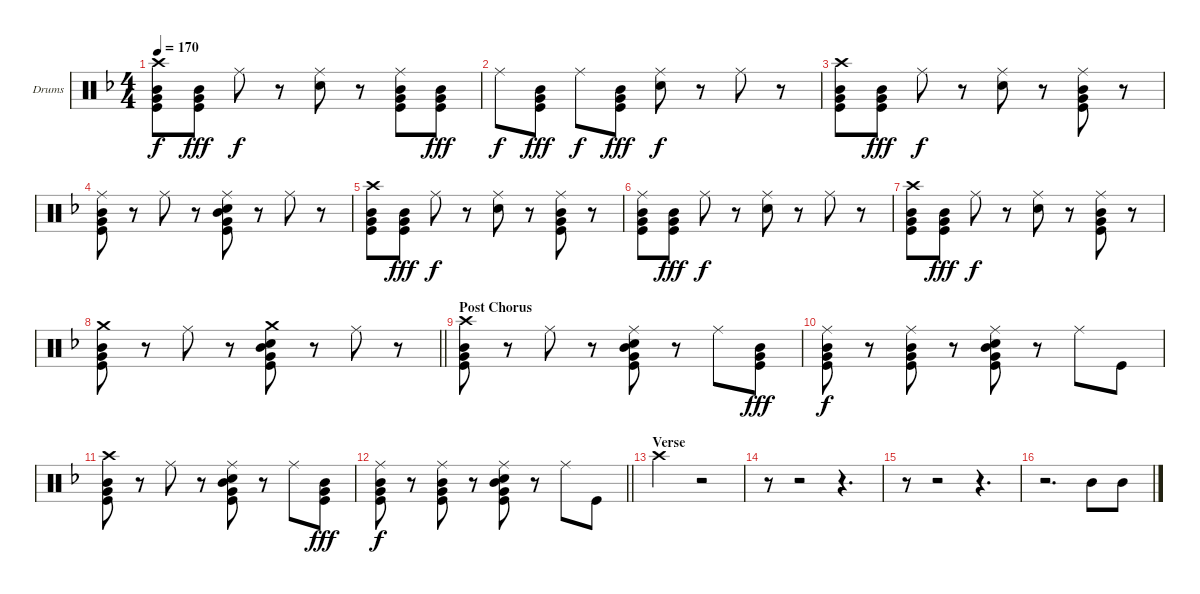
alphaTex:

\bracketExtendMode groupsimilarinstruments
\firstSystemTrackNameOrientation horizontal
\otherSystemsTrackNameOrientation horizontal
\track ("Drumkit" "Drums") {instrument percussion}
\staff {score}
\articulation defaults
\ts (4 4)
\tempo 170
\clef neutral
\scale
0.333333
\ks dminor
("Crash high (hit)" "Mid Tom (hit)" "Very Low Tom (hit)" "Kick (hit)").8{dy f} ("Mid Tom (hit)" "Very Low Tom (hit)" "Kick (hit)").8{dy fff} "Ride (middle)".8{dy f} r.8 ("Ride (middle)" "Snare (hit) 2").8 r.8 ("Ride (middle)" "Mid Tom (hit)" "Very Low Tom (hit)" "Kick (hit)").8 ("Mid Tom (hit)" "Very Low Tom (hit)" "Kick (hit)").8{dy fff} |
\scale
0.333333 "Ride (middle)".8{dy f} ("Mid Tom (hit)" "Very Low Tom (hit)" "Kick (hit)").8{dy fff} "Ride (middle)".8{dy f} ("Mid Tom (hit)" "Kick (hit)" "Very Low Tom (hit)").8{dy fff} ("Ride (middle)" "Snare (hit) 2").8{dy f} r.8 "Ride (middle)".8 r.8 |
\scale
0.333333 ("Crash high (hit)" "Mid Tom (hit)" "Very Low Tom (hit)" "Kick (hit)").8 ("Mid Tom (hit)" "Very Low Tom (hit)" "Kick (hit)").8{dy fff} "Ride (middle)".8{dy f} r.8 ("Ride (middle)" "Snare (hit) 2").8 r.8 ("Ride (middle)" "Mid Tom (hit)" "Very Low Tom (hit)" "Kick (hit)").8 r.8 |
\scale
0.351852 ("Ride (middle)" "Mid Tom (hit)" "Very Low Tom (hit)" "Kick (hit)").8 r.8 "Ride (middle)".8 r.8 ("Ride (middle)" "Snare (hit) 2" "Mid Tom (hit)" "Very Low Tom (hit)" "Kick (hit)").8 r.8 "Ride (middle)".8 r.8 |
\scale
0.324074 ("Crash high (hit)" "Mid Tom (hit)" "Very Low Tom (hit)" "Kick (hit)").8 ("Mid Tom (hit)" "Very Low Tom (hit)" "Kick (hit)").8{dy fff} "Ride (middle)".8{dy f} r.8 ("Ride (middle)" "Snare (hit) 2").8 r.8 ("Ride (middle)" "Mid Tom (hit)" "Very Low Tom (hit)" "Kick (hit)").8 r.8 |
\scale
0.324074 ("Ride (middle)" "Mid Tom (hit)" "Very Low Tom (hit)" "Kick (hit)").8 ("Mid Tom (hit)" "Very Low Tom (hit)" "Kick (hit)").8{dy fff} "Ride (middle)".8{dy f} r.8 ("Ride (middle)" "Snare (hit) 2").8 r.8 "Ride (middle)".8 r.8 |
\scale
0.315315 ("Crash high (hit)" "Mid Tom (hit)" "Very Low Tom (hit)" "Kick (hit)").8 ("Mid Tom (hit)" "Very Low Tom (hit)" "Kick (hit)").8{dy fff} "Ride (middle)".8{dy f} r.8 ("Ride (middle)" "Snare (hit) 2").8 r.8 ("Ride (middle)" "Mid Tom (hit)" "Very Low Tom (hit)" "Kick (hit)").8 r.8 |
\scale
0.342342
\barLineRight lightlight
("Crash medium (hit)" "Mid Tom (hit)" "Very Low Tom (hit)" "Kick (hit)").8 r.8 "Ride (middle)".8 r.8 ("Crash medium (hit)" "Snare (hit) 2" "Mid Tom (hit)" "Very Low Tom (hit)" "Kick (hit)").8 r.8 "Ride (middle)".8 r.8 |
\section ("" "Post Chorus")
\scale
0.342342 ("Crash high (hit)" "Mid Tom (hit)" "Very Low Tom (hit)" "Kick (hit)").8 r.8 "Ride (middle)".8 r.8 ("Ride (middle)" "Snare (hit) 2" "Mid Tom (hit)" "Very Low Tom (hit)" "Kick (hit)").8 r.8 "Ride (middle)".8 ("Mid Tom (hit)" "Very Low Tom (hit)" "Kick (hit)").8{dy fff} |
\scale
0.333333 ("Ride (middle)" "Mid Tom (hit)" "Very Low Tom (hit)" "Kick (hit)").8{dy f} r.8 ("Ride (middle)" "Mid Tom (hit)" "Very Low Tom (hit)" "Kick (hit)").8 r.8 ("Ride (middle)" "Snare (hit) 2" "Mid Tom (hit)" "Very Low Tom (hit)" "Kick (hit)").8 r.8 "Ride (middle)".8 "Kick (hit)".8 |
\scale
0.333333 ("Crash high (hit)" "Mid Tom (hit)" "Very Low Tom (hit)" "Kick (hit)").8 r.8 "Ride (middle)".8 r.8 ("Ride (middle)" "Snare (hit) 2" "Mid Tom (hit)" "Very Low Tom (hit)" "Kick (hit)").8 r.8 "Ride (middle)".8 ("Mid Tom (hit)" "Very Low Tom (hit)" "Kick (hit)").8{dy fff} |
\scale
0.333333
\barLineRight lightlight
("Ride (middle)" "Mid Tom (hit)" "Very Low Tom (hit)" "Kick (hit)").8{dy f} r.8 ("Ride (middle)" "Mid Tom (hit)" "Very Low Tom (hit)" "Kick (hit)").8 r.8 ("Ride (middle)" "Snare (hit) 2" "Mid Tom (hit)" "Very Low Tom (hit)" "Kick (hit)").8 r.8 "Ride (middle)".8 "Kick (hit)".8 |
\section ("" "Verse")
\scale
0.304636 "Crash high (hit)".2 r.2 |
\scale
0.347682 r.8 r.2 r.4{d} |
\scale
0.347682 r.8 r.2 r.4{d} |
\scale
0.307692 r.2{d} "Mid Tom (hit)".8 "Mid Tom (hit)".8
